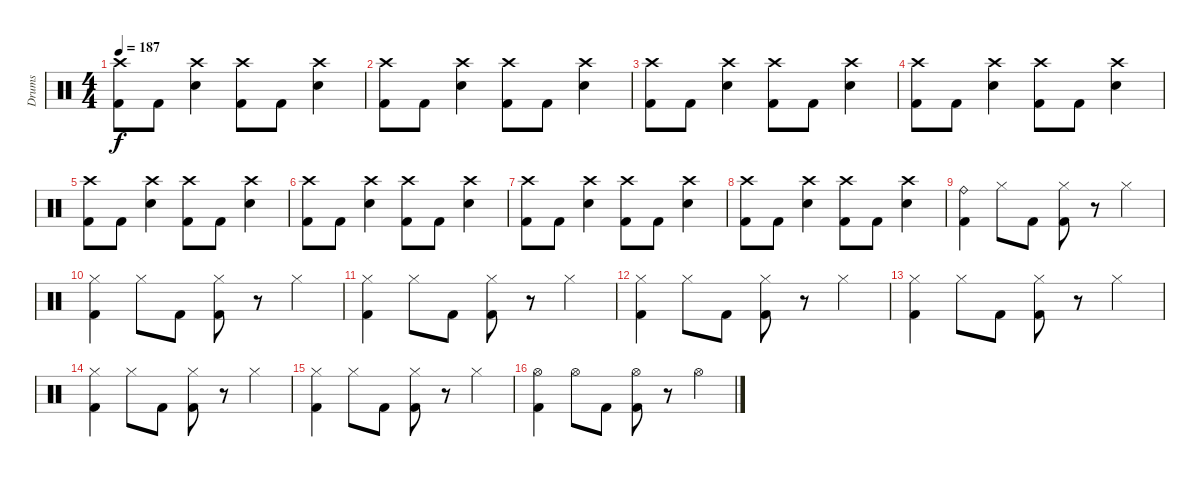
\track ("Drums" "Drums") {instrument percussion}
\staff {score}
\articulation defaults
\ts (4 4)
\tempo 187
\clef neutral
\ks c
("Crash high (hit)" "Kick (hit) 2").8{dy f} "Kick (hit) 2".8 ("Crash high (hit)" "Electric Snare (hit)").4 ("Crash high (hit)" "Kick (hit) 2").8 "Kick (hit) 2".8 ("Crash high (hit)" "Electric Snare (hit)").4 |
("Crash high (hit)" "Kick (hit) 2").8 "Kick (hit) 2".8 ("Crash high (hit)" "Electric Snare (hit)").4 ("Crash high (hit)" "Kick (hit) 2").8 "Kick (hit) 2".8 ("Crash high (hit)" "Electric Snare (hit)").4 |
("Crash high (hit)" "Kick (hit) 2").8 "Kick (hit) 2".8 ("Crash high (hit)" "Electric Snare (hit)").4 ("Crash high (hit)" "Kick (hit) 2").8 "Kick (hit) 2".8 ("Crash high (hit)" "Electric Snare (hit)").4 |
("Crash high (hit)" "Kick (hit) 2").8 "Kick (hit) 2".8 ("Crash high (hit)" "Electric Snare (hit)").4 ("Crash high (hit)" "Kick (hit) 2").8 "Kick (hit) 2".8 ("Crash high (hit)" "Electric Snare (hit)").4 |
("Crash high (hit)" "Kick (hit) 2").8 "Kick (hit) 2".8 ("Crash high (hit)" "Electric Snare (hit)").4 ("Crash high (hit)" "Kick (hit) 2").8 "Kick (hit) 2".8 ("Crash high (hit)" "Electric Snare (hit)").4 |
("Crash high (hit)" "Kick (hit) 2").8 "Kick (hit) 2".8 ("Crash high (hit)" "Electric Snare (hit)").4 ("Crash high (hit)" "Kick (hit) 2").8 "Kick (hit) 2".8 ("Crash high (hit)" "Electric Snare (hit)").4 |
("Crash high (hit)" "Kick (hit) 2").8 "Kick (hit) 2".8 ("Crash high (hit)" "Electric Snare (hit)").4 ("Crash high (hit)" "Kick (hit) 2").8 "Kick (hit) 2".8 ("Crash high (hit)" "Electric Snare (hit)").4 |
("Crash high (hit)" "Kick (hit) 2").8 "Kick (hit) 2".8 ("Crash high (hit)" "Electric Snare (hit)").4 ("Crash high (hit)" "Kick (hit) 2").8 "Kick (hit) 2".8 ("Crash high (hit)" "Electric Snare (hit)").4 |
("Ride (bell)" "Kick (hit) 2").4 "Hi-Hat (closed)".8 "Kick (hit) 2".8 ("Hi-Hat (closed)" "Kick (hit) 2").8 r.8 "Hi-Hat (closed)".4 |
("Hi-Hat (closed)" "Kick (hit) 2").4 "Hi-Hat (closed)".8 "Kick (hit) 2".8 ("Hi-Hat (closed)" "Kick (hit) 2").8 r.8 "Hi-Hat (closed)".4 |
("Hi-Hat (closed)" "Kick (hit) 2").4 "Hi-Hat (closed)".8 "Kick (hit) 2".8 ("Hi-Hat (closed)" "Kick (hit) 2").8 r.8 "Hi-Hat (closed)".4 |
("Hi-Hat (closed)" "Kick (hit) 2").4 "Hi-Hat (closed)".8 "Kick (hit) 2".8 ("Hi-Hat (closed)" "Kick (hit) 2").8 r.8 "Hi-Hat (closed)".4 |
("Hi-Hat (closed)" "Kick (hit) 2").4 "Hi-Hat (closed)".8 "Kick (hit) 2".8 ("Hi-Hat (closed)" "Kick (hit) 2").8 r.8 "Hi-Hat (closed)".4 |
("Hi-Hat (closed)" "Kick (hit) 2").4 "Hi-Hat (closed)".8 "Kick (hit) 2".8 ("Hi-Hat (closed)" "Kick (hit) 2").8 r.8 "Hi-Hat (closed)".4 |
("Hi-Hat (closed)" "Kick (hit) 2").4 "Hi-Hat (closed)".8 "Kick (hit) 2".8 ("Hi-Hat (closed)" "Kick (hit) 2").8 r.8 "Hi-Hat (closed)".4 |
("Hi-Hat (open)" "Kick (hit) 2").4 "Hi-Hat (open)".8 "Kick (hit) 2".8 ("Hi-Hat (open)" "Kick (hit) 2").8 r.8 "Hi-Hat (open)".4
